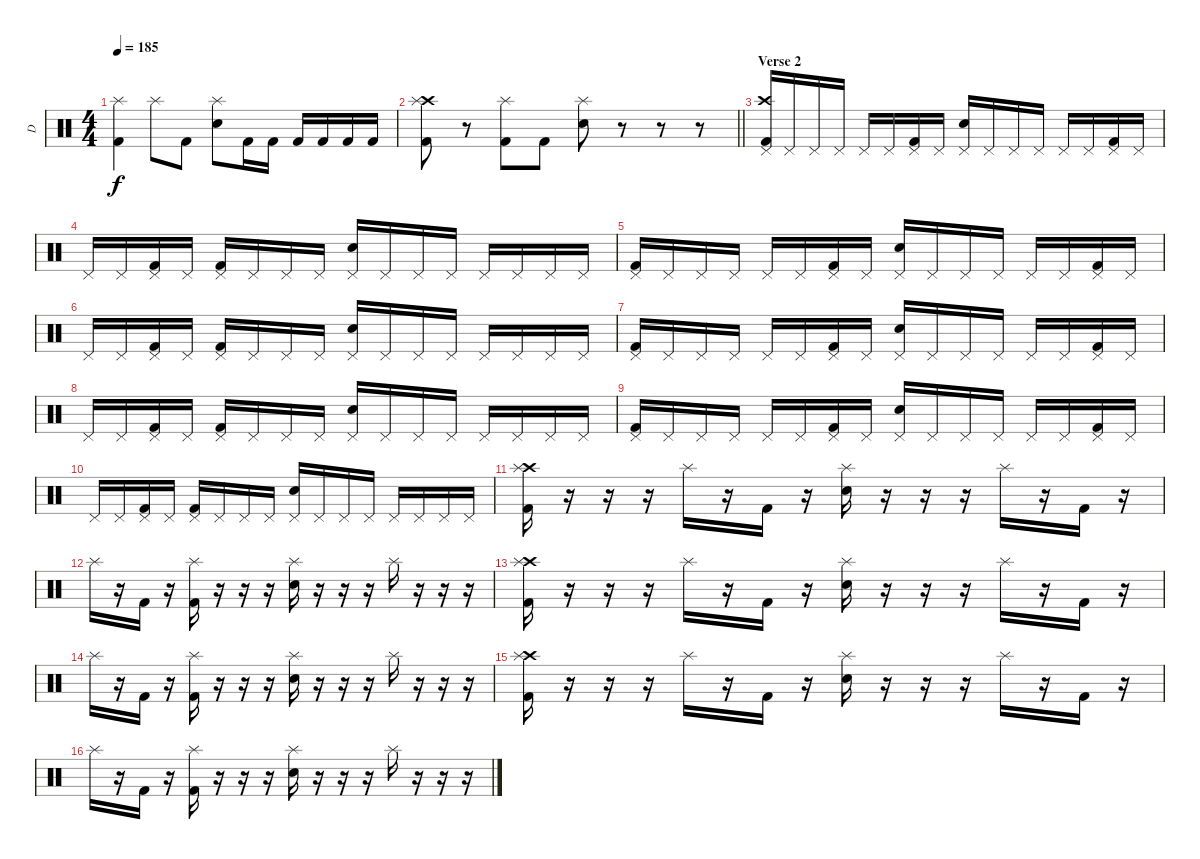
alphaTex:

\track ("D" "D") {instrument percussion}
\staff {score}
\articulation defaults
\ts (4 4)
\tempo 185
\clef neutral
\ks c
("Kick (hit) 2" "Splash (hit)").4{dy f} "Splash (hit)".8 "Kick (hit) 2".8 ("Electric Snare (hit)" "Splash (hit)").8 "Kick (hit) 2".16 "Kick (hit) 2".16 "Kick (hit) 2".16 "Kick (hit) 2".16 "Kick (hit) 2".16 "Kick (hit) 2".16 |
\barLineRight lightlight
("Crash high (hit)" "Kick (hit) 2" "Splash (hit)").8 r.8 ("Kick (hit) 2" "Splash (hit)").8 "Kick (hit) 2".8 ("Electric Snare (hit)" "Splash (hit)").8 r.8 r.8 r.8 |
\section ("" "Verse 2")
("Crash high (hit)" "Kick (hit) 2" "Pedal Hi-Hat (hit)").16 "Pedal Hi-Hat (hit)".16 "Pedal Hi-Hat (hit)".16 "Pedal Hi-Hat (hit)".16 "Pedal Hi-Hat (hit)".16 "Pedal Hi-Hat (hit)".16 ("Kick (hit) 2" "Pedal Hi-Hat (hit)").16 "Pedal Hi-Hat (hit)".16 ("Electric Snare (hit)" "Pedal Hi-Hat (hit)").16 "Pedal Hi-Hat (hit)".16 "Pedal Hi-Hat (hit)".16 "Pedal Hi-Hat (hit)".16 "Pedal Hi-Hat (hit)".16 "Pedal Hi-Hat (hit)".16 ("Kick (hit) 2" "Pedal Hi-Hat (hit)").16 "Pedal Hi-Hat (hit)".16 |
"Pedal Hi-Hat (hit)".16 "Pedal Hi-Hat (hit)".16 ("Kick (hit) 2" "Pedal Hi-Hat (hit)").16 "Pedal Hi-Hat (hit)".16 ("Kick (hit) 2" "Pedal Hi-Hat (hit)").16 "Pedal Hi-Hat (hit)".16 "Pedal Hi-Hat (hit)".16 "Pedal Hi-Hat (hit)".16 ("Electric Snare (hit)" "Pedal Hi-Hat (hit)").16 "Pedal Hi-Hat (hit)".16 "Pedal Hi-Hat (hit)".16 "Pedal Hi-Hat (hit)".16 "Pedal Hi-Hat (hit)".16 "Pedal Hi-Hat (hit)".16 "Pedal Hi-Hat (hit)".16 "Pedal Hi-Hat (hit)".16 |
("Kick (hit) 2" "Pedal Hi-Hat (hit)").16 "Pedal Hi-Hat (hit)".16 "Pedal Hi-Hat (hit)".16 "Pedal Hi-Hat (hit)".16 "Pedal Hi-Hat (hit)".16 "Pedal Hi-Hat (hit)".16 ("Kick (hit) 2" "Pedal Hi-Hat (hit)").16 "Pedal Hi-Hat (hit)".16 ("Electric Snare (hit)" "Pedal Hi-Hat (hit)").16 "Pedal Hi-Hat (hit)".16 "Pedal Hi-Hat (hit)".16 "Pedal Hi-Hat (hit)".16 "Pedal Hi-Hat (hit)".16 "Pedal Hi-Hat (hit)".16 ("Kick (hit) 2" "Pedal Hi-Hat (hit)").16 "Pedal Hi-Hat (hit)".16 |
"Pedal Hi-Hat (hit)".16 "Pedal Hi-Hat (hit)".16 ("Kick (hit) 2" "Pedal Hi-Hat (hit)").16 "Pedal Hi-Hat (hit)".16 ("Kick (hit) 2" "Pedal Hi-Hat (hit)").16 "Pedal Hi-Hat (hit)".16 "Pedal Hi-Hat (hit)".16 "Pedal Hi-Hat (hit)".16 ("Electric Snare (hit)" "Pedal Hi-Hat (hit)").16 "Pedal Hi-Hat (hit)".16 "Pedal Hi-Hat (hit)".16 "Pedal Hi-Hat (hit)".16 "Pedal Hi-Hat (hit)".16 "Pedal Hi-Hat (hit)".16 "Pedal Hi-Hat (hit)".16 "Pedal Hi-Hat (hit)".16 |
("Kick (hit) 2" "Pedal Hi-Hat (hit)").16 "Pedal Hi-Hat (hit)".16 "Pedal Hi-Hat (hit)".16 "Pedal Hi-Hat (hit)".16 "Pedal Hi-Hat (hit)".16 "Pedal Hi-Hat (hit)".16 ("Kick (hit) 2" "Pedal Hi-Hat (hit)").16 "Pedal Hi-Hat (hit)".16 ("Electric Snare (hit)" "Pedal Hi-Hat (hit)").16 "Pedal Hi-Hat (hit)".16 "Pedal Hi-Hat (hit)".16 "Pedal Hi-Hat (hit)".16 "Pedal Hi-Hat (hit)".16 "Pedal Hi-Hat (hit)".16 ("Kick (hit) 2" "Pedal Hi-Hat (hit)").16 "Pedal Hi-Hat (hit)".16 |
"Pedal Hi-Hat (hit)".16 "Pedal Hi-Hat (hit)".16 ("Kick (hit) 2" "Pedal Hi-Hat (hit)").16 "Pedal Hi-Hat (hit)".16 ("Kick (hit) 2" "Pedal Hi-Hat (hit)").16 "Pedal Hi-Hat (hit)".16 "Pedal Hi-Hat (hit)".16 "Pedal Hi-Hat (hit)".16 ("Electric Snare (hit)" "Pedal Hi-Hat (hit)").16 "Pedal Hi-Hat (hit)".16 "Pedal Hi-Hat (hit)".16 "Pedal Hi-Hat (hit)".16 "Pedal Hi-Hat (hit)".16 "Pedal Hi-Hat (hit)".16 "Pedal Hi-Hat (hit)".16 "Pedal Hi-Hat (hit)".16 |
("Kick (hit) 2" "Pedal Hi-Hat (hit)").16 "Pedal Hi-Hat (hit)".16 "Pedal Hi-Hat (hit)".16 "Pedal Hi-Hat (hit)".16 "Pedal Hi-Hat (hit)".16 "Pedal Hi-Hat (hit)".16 ("Kick (hit) 2" "Pedal Hi-Hat (hit)").16 "Pedal Hi-Hat (hit)".16 ("Electric Snare (hit)" "Pedal Hi-Hat (hit)").16 "Pedal Hi-Hat (hit)".16 "Pedal Hi-Hat (hit)".16 "Pedal Hi-Hat (hit)".16 "Pedal Hi-Hat (hit)".16 "Pedal Hi-Hat (hit)".16 ("Kick (hit) 2" "Pedal Hi-Hat (hit)").16 "Pedal Hi-Hat (hit)".16 |
"Pedal Hi-Hat (hit)".16 "Pedal Hi-Hat (hit)".16 ("Kick (hit) 2" "Pedal Hi-Hat (hit)").16 "Pedal Hi-Hat (hit)".16 ("Kick (hit) 2" "Pedal Hi-Hat (hit)").16 "Pedal Hi-Hat (hit)".16 "Pedal Hi-Hat (hit)".16 "Pedal Hi-Hat (hit)".16 ("Electric Snare (hit)" "Pedal Hi-Hat (hit)").16 "Pedal Hi-Hat (hit)".16 "Pedal Hi-Hat (hit)".16 "Pedal Hi-Hat (hit)".16 "Pedal Hi-Hat (hit)".16 "Pedal Hi-Hat (hit)".16 "Pedal Hi-Hat (hit)".16 "Pedal Hi-Hat (hit)".16 |
("Crash high (hit)" "Kick (hit) 2" "Splash (hit)").16 r.16 r.16 r.16 "Splash (hit)".16 r.16 "Kick (hit) 2".16 r.16 ("Electric Snare (hit)" "Splash (hit)").16 r.16 r.16 r.16 "Splash (hit)".16 r.16 "Kick (hit) 2".16 r.16 |
"Splash (hit)".16 r.16 "Kick (hit) 2".16 r.16 ("Kick (hit) 2" "Splash (hit)").16 r.16 r.16 r.16 ("Electric Snare (hit)" "Splash (hit)").16 r.16 r.16 r.16 "Splash (hit)".16 r.16 r.16 r.16 |
("Crash high (hit)" "Kick (hit) 2" "Splash (hit)").16 r.16 r.16 r.16 "Splash (hit)".16 r.16 "Kick (hit) 2".16 r.16 ("Electric Snare (hit)" "Splash (hit)").16 r.16 r.16 r.16 "Splash (hit)".16 r.16 "Kick (hit) 2".16 r.16 |
"Splash (hit)".16 r.16 "Kick (hit) 2".16 r.16 ("Kick (hit) 2" "Splash (hit)").16 r.16 r.16 r.16 ("Electric Snare (hit)" "Splash (hit)").16 r.16 r.16 r.16 "Splash (hit)".16 r.16 r.16 r.16 |
("Crash high (hit)" "Kick (hit) 2" "Splash (hit)").16 r.16 r.16 r.16 "Splash (hit)".16 r.16 "Kick (hit) 2".16 r.16 ("Electric Snare (hit)" "Splash (hit)").16 r.16 r.16 r.16 "Splash (hit)".16 r.16 "Kick (hit) 2".16 r.16 |
"Splash (hit)".16 r.16 "Kick (hit) 2".16 r.16 ("Kick (hit) 2" "Splash (hit)").16 r.16 r.16 r.16 ("Electric Snare (hit)" "Splash (hit)").16 r.16 r.16 r.16 "Splash (hit)".16 r.16 r.16 r.16
